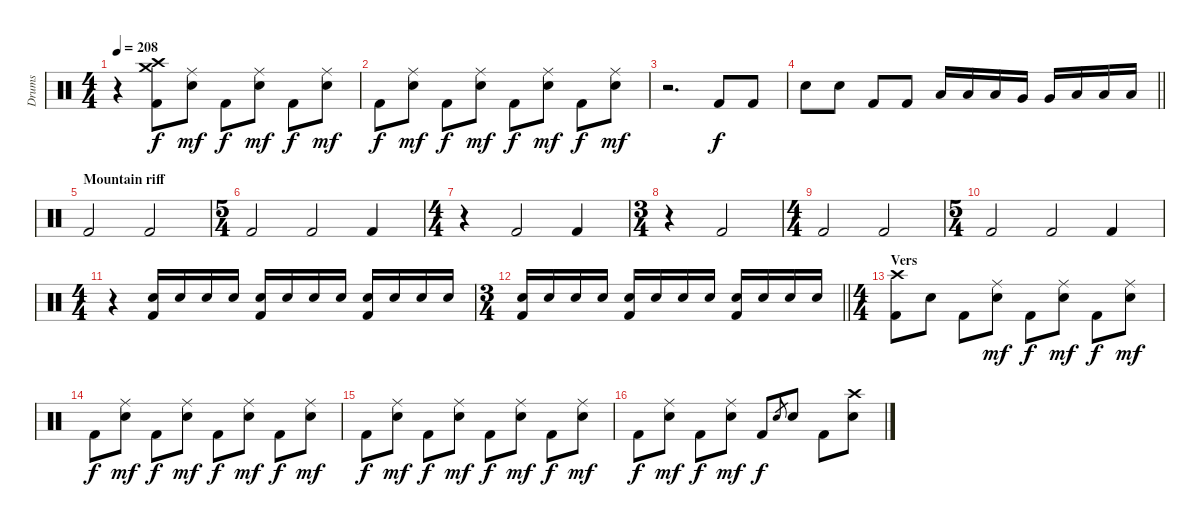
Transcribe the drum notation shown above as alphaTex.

\track ("Drums" "Drums") {instrument percussion}
\staff {score}
\articulation defaults
\ts (4 4)
\tempo 208
\clef neutral
\ks c
r.4{dy f} ("Crash high (hit)" "Crash medium (hit)" "Kick (hit) 2").8 ("Ride (middle)" "Electric Snare (hit)").8{dy mf} "Kick (hit) 2".8{dy f} ("Ride (middle)" "Electric Snare (hit)").8{dy mf} "Kick (hit) 2".8{dy f} ("Ride (middle)" "Electric Snare (hit)").8{dy mf} |
"Kick (hit) 2".8{dy f} ("Ride (middle)" "Electric Snare (hit)").8{dy mf} "Kick (hit) 2".8{dy f} ("Ride (middle)" "Electric Snare (hit)").8{dy mf} "Kick (hit) 2".8{dy f} ("Ride (middle)" "Electric Snare (hit)").8{dy mf} "Kick (hit) 2".8{dy f} ("Ride (middle)" "Electric Snare (hit)").8{dy mf} |
r.2{d} "Kick (hit) 2".8{dy f} "Kick (hit) 2".8 |
\barLineRight lightlight "Snare (hit) 2".8 "Snare (hit) 2".8 "Kick (hit) 2".8 "Kick (hit) 2".8 "Low Tom (hit)".16 "Low Tom (hit)".16 "Low Tom (hit)".16 "Very Low Tom (hit)".16 "Very Low Tom (hit)".16 "Low Floor Tom (hit)".16 "Low Floor Tom (hit)".16 "Low Floor Tom (hit)".16
|
\section ("" "Mountain riff")
"Kick (hit) 2".2 "Kick (hit) 2".2 |
\ts (5 4)
"Kick (hit) 2".2 "Kick (hit) 2".2 "Kick (hit) 2".4 |
\ts (4 4)
r.4 "Kick (hit) 2".2 "Kick (hit) 2".4 |
\ts (3 4)
r.4 "Kick (hit) 2".2 |
\ts (4 4)
"Kick (hit) 2".2 "Kick (hit) 2".2 |
\ts (5 4)
"Kick (hit) 2".2 "Kick (hit) 2".2 "Kick (hit) 2".4 |
\ts (4 4)
r.4 ("Electric Snare (hit)" "Kick (hit) 2").16 "Electric Snare (hit)".16 "Electric Snare (hit)".16 "Electric Snare (hit)".16 ("Electric Snare (hit)" "Kick (hit) 2").16 "Electric Snare (hit)".16 "Electric Snare (hit)".16 "Electric Snare (hit)".16 ("Electric Snare (hit)" "Kick (hit) 2").16 "Electric Snare (hit)".16 "Electric Snare (hit)".16 "Electric Snare (hit)".16 |
\ts (3 4)
\barLineRight lightlight
("Electric Snare (hit)" "Kick (hit) 2").16 "Electric Snare (hit)".16 "Electric Snare (hit)".16 "Electric Snare (hit)".16 ("Electric Snare (hit)" "Kick (hit) 2").16 "Electric Snare (hit)".16 "Electric Snare (hit)".16 "Electric Snare (hit)".16 ("Electric Snare (hit)" "Kick (hit) 2").16 "Electric Snare (hit)".16 "Electric Snare (hit)".16 "Electric Snare (hit)".16 |
\ts (4 4)
\section ("" "Vers")
("Crash high (hit)" "Kick (hit) 2").8 "Electric Snare (hit)".8 "Kick (hit) 2".8 ("Ride (middle)" "Electric Snare (hit)").8{dy mf} "Kick (hit) 2".8{dy f} ("Ride (middle)" "Electric Snare (hit)").8{dy mf} "Kick (hit) 2".8{dy f} ("Ride (middle)" "Electric Snare (hit)").8{dy mf} |
"Kick (hit) 2".8{dy f} ("Ride (middle)" "Electric Snare (hit)").8{dy mf} "Kick (hit) 2".8{dy f} ("Ride (middle)" "Electric Snare (hit)").8{dy mf} "Kick (hit) 2".8{dy f} ("Ride (middle)" "Electric Snare (hit)").8{dy mf} "Kick (hit) 2".8{dy f} ("Ride (middle)" "Electric Snare (hit)").8{dy mf} |
"Kick (hit) 2".8{dy f} ("Ride (middle)" "Electric Snare (hit)").8{dy mf} "Kick (hit) 2".8{dy f} ("Ride (middle)" "Electric Snare (hit)").8{dy mf} "Kick (hit) 2".8{dy f} ("Ride (middle)" "Electric Snare (hit)").8{dy mf} "Kick (hit) 2".8{dy f} ("Ride (middle)" "Electric Snare (hit)").8{dy mf} |
"Kick (hit) 2".8{dy f} ("Ride (middle)" "Electric Snare (hit)").8{dy mf} "Kick (hit) 2".8{dy f} ("Ride (middle)" "Electric Snare (hit)").8{dy mf} "Kick (hit) 2".8{dy f} "Electric Snare (hit)".8{gr} "Electric Snare (hit)".8 "Kick (hit) 2".8 ("Crash high (hit)" "Electric Snare (hit)").8
